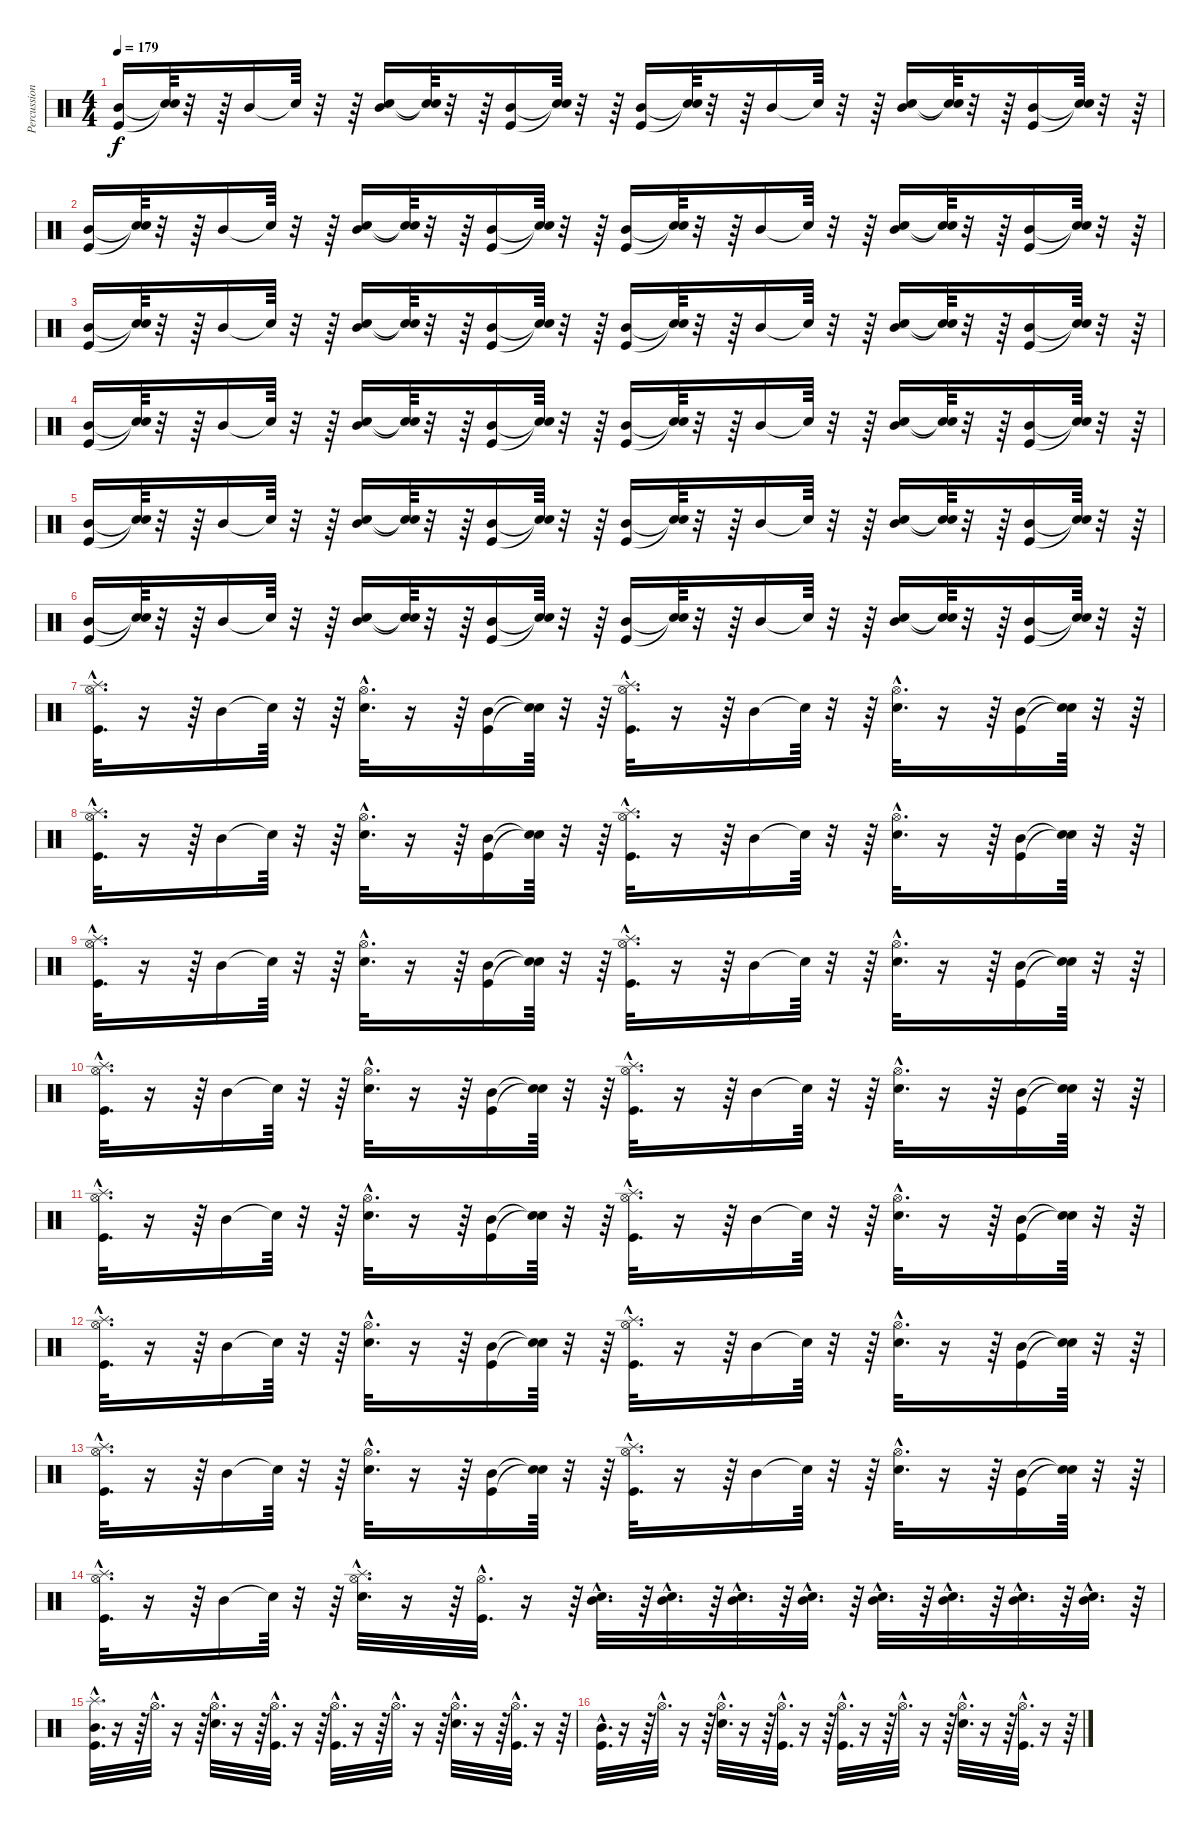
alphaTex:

\track ("Percussion" "Percussion") {instrument percussion}
\staff {score}
\articulation defaults
\ts (4 4)
\tempo 179
\clef neutral
\ks c
("Kick (hit)" "Mid Tom (hit)").16{dy f} ("Snare (hit)"{t} "Snare (hit)"{t}).64 r.32 r.64 "Mid Tom (hit)".16 "Snare (hit)"{t}.64 r.32 r.64 ("Mid Tom (hit)" "Snare (hit) 2").16 ("Snare (hit)"{t} "Snare (hit)"{t}).64 r.32 r.64 ("Kick (hit)" "Mid Tom (hit)").16 ("Snare (hit)"{t} "Snare (hit)"{t}).64 r.32 r.64 ("Kick (hit)" "Mid Tom (hit)").16 ("Snare (hit)"{t} "Snare (hit)"{t}).64 r.32 r.64 "Mid Tom (hit)".16 "Snare (hit)"{t}.64 r.32 r.64 ("Mid Tom (hit)" "Snare (hit) 2").16 ("Snare (hit)"{t} "Snare (hit)"{t}).64 r.32 r.64 ("Kick (hit)" "Mid Tom (hit)").16 ("Snare (hit)"{t} "Snare (hit)"{t}).64 r.32 r.64 |
("Kick (hit)" "Mid Tom (hit)").16 ("Snare (hit)"{t} "Snare (hit)"{t}).64 r.32 r.64 "Mid Tom (hit)".16 "Snare (hit)"{t}.64 r.32 r.64 ("Mid Tom (hit)" "Snare (hit) 2").16 ("Snare (hit)"{t} "Snare (hit)"{t}).64 r.32 r.64 ("Kick (hit)" "Mid Tom (hit)").16 ("Snare (hit)"{t} "Snare (hit)"{t}).64 r.32 r.64 ("Kick (hit)" "Mid Tom (hit)").16 ("Snare (hit)"{t} "Snare (hit)"{t}).64 r.32 r.64 "Mid Tom (hit)".16 "Snare (hit)"{t}.64 r.32 r.64 ("Mid Tom (hit)" "Snare (hit) 2").16 ("Snare (hit)"{t} "Snare (hit)"{t}).64 r.32 r.64 ("Kick (hit)" "Mid Tom (hit)").16 ("Snare (hit)"{t} "Snare (hit)"{t}).64 r.32 r.64 |
("Kick (hit)" "Mid Tom (hit)").16 ("Snare (hit)"{t} "Snare (hit)"{t}).64 r.32 r.64 "Mid Tom (hit)".16 "Snare (hit)"{t}.64 r.32 r.64 ("Mid Tom (hit)" "Snare (hit) 2").16 ("Snare (hit)"{t} "Snare (hit)"{t}).64 r.32 r.64 ("Kick (hit)" "Mid Tom (hit)").16 ("Snare (hit)"{t} "Snare (hit)"{t}).64 r.32 r.64 ("Kick (hit)" "Mid Tom (hit)").16 ("Snare (hit)"{t} "Snare (hit)"{t}).64 r.32 r.64 "Mid Tom (hit)".16 "Snare (hit)"{t}.64 r.32 r.64 ("Mid Tom (hit)" "Snare (hit) 2").16 ("Snare (hit)"{t} "Snare (hit)"{t}).64 r.32 r.64 ("Kick (hit)" "Mid Tom (hit)").16 ("Snare (hit)"{t} "Snare (hit)"{t}).64 r.32 r.64 |
("Kick (hit)" "Mid Tom (hit)").16 ("Snare (hit)"{t} "Snare (hit)"{t}).64 r.32 r.64 "Mid Tom (hit)".16 "Snare (hit)"{t}.64 r.32 r.64 ("Mid Tom (hit)" "Snare (hit) 2").16 ("Snare (hit)"{t} "Snare (hit)"{t}).64 r.32 r.64 ("Kick (hit)" "Mid Tom (hit)").16 ("Snare (hit)"{t} "Snare (hit)"{t}).64 r.32 r.64 ("Kick (hit)" "Mid Tom (hit)").16 ("Snare (hit)"{t} "Snare (hit)"{t}).64 r.32 r.64 "Mid Tom (hit)".16 "Snare (hit)"{t}.64 r.32 r.64 ("Mid Tom (hit)" "Snare (hit) 2").16 ("Snare (hit)"{t} "Snare (hit)"{t}).64 r.32 r.64 ("Kick (hit)" "Mid Tom (hit)").16 ("Snare (hit)"{t} "Snare (hit)"{t}).64 r.32 r.64 |
("Kick (hit)" "Mid Tom (hit)").16 ("Snare (hit)"{t} "Snare (hit)"{t}).64 r.32 r.64 "Mid Tom (hit)".16 "Snare (hit)"{t}.64 r.32 r.64 ("Mid Tom (hit)" "Snare (hit) 2").16 ("Snare (hit)"{t} "Snare (hit)"{t}).64 r.32 r.64 ("Kick (hit)" "Mid Tom (hit)").16 ("Snare (hit)"{t} "Snare (hit)"{t}).64 r.32 r.64 ("Kick (hit)" "Mid Tom (hit)").16 ("Snare (hit)"{t} "Snare (hit)"{t}).64 r.32 r.64 "Mid Tom (hit)".16 "Snare (hit)"{t}.64 r.32 r.64 ("Mid Tom (hit)" "Snare (hit) 2").16 ("Snare (hit)"{t} "Snare (hit)"{t}).64 r.32 r.64 ("Kick (hit)" "Mid Tom (hit)").16 ("Snare (hit)"{t} "Snare (hit)"{t}).64 r.32 r.64 |
("Kick (hit)" "Mid Tom (hit)").16 ("Snare (hit)"{t} "Snare (hit)"{t}).64 r.32 r.64 "Mid Tom (hit)".16 "Snare (hit)"{t}.64 r.32 r.64 ("Mid Tom (hit)" "Snare (hit) 2").16 ("Snare (hit)"{t} "Snare (hit)"{t}).64 r.32 r.64 ("Kick (hit)" "Mid Tom (hit)").16 ("Snare (hit)"{t} "Snare (hit)"{t}).64 r.32 r.64 ("Kick (hit)" "Mid Tom (hit)").16 ("Snare (hit)"{t} "Snare (hit)"{t}).64 r.32 r.64 "Mid Tom (hit)".16 "Snare (hit)"{t}.64 r.32 r.64 ("Mid Tom (hit)" "Snare (hit) 2").16 ("Snare (hit)"{t} "Snare (hit)"{t}).64 r.32 r.64 ("Kick (hit)" "Mid Tom (hit)").16 ("Snare (hit)"{t} "Snare (hit)"{t}).64 r.32 r.64 |
("Splash (hit)"{hac} "Kick (hit)"{hac} "Hi-Hat (open)"{hac}).32{d} r.16 r.64 "Mid Tom (hit)".16 "Snare (hit)"{t}.64 r.32 r.64 ("Snare (hit) 2"{hac} "Hi-Hat (open)"{hac}).32{d} r.16 r.64 ("Kick (hit)" "Mid Tom (hit)").16 ("Snare (hit)"{t} "Snare (hit)"{t}).64 r.32 r.64 ("Splash (hit)"{hac} "Kick (hit)"{hac} "Hi-Hat (open)"{hac}).32{d} r.16 r.64 "Mid Tom (hit)".16 "Snare (hit)"{t}.64 r.32 r.64 ("Snare (hit) 2"{hac} "Hi-Hat (open)"{hac}).32{d} r.16 r.64 ("Kick (hit)" "Mid Tom (hit)").16 ("Snare (hit)"{t} "Snare (hit)"{t}).64 r.32 r.64 |
("Splash (hit)"{hac} "Kick (hit)"{hac} "Hi-Hat (open)"{hac}).32{d} r.16 r.64 "Mid Tom (hit)".16 "Snare (hit)"{t}.64 r.32 r.64 ("Snare (hit) 2"{hac} "Hi-Hat (open)"{hac}).32{d} r.16 r.64 ("Kick (hit)" "Mid Tom (hit)").16 ("Snare (hit)"{t} "Snare (hit)"{t}).64 r.32 r.64 ("Splash (hit)"{hac} "Kick (hit)"{hac} "Hi-Hat (open)"{hac}).32{d} r.16 r.64 "Mid Tom (hit)".16 "Snare (hit)"{t}.64 r.32 r.64 ("Snare (hit) 2"{hac} "Hi-Hat (open)"{hac}).32{d} r.16 r.64 ("Kick (hit)" "Mid Tom (hit)").16 ("Snare (hit)"{t} "Snare (hit)"{t}).64 r.32 r.64 |
("Splash (hit)"{hac} "Kick (hit)"{hac} "Hi-Hat (open)"{hac}).32{d} r.16 r.64 "Mid Tom (hit)".16 "Snare (hit)"{t}.64 r.32 r.64 ("Snare (hit) 2"{hac} "Hi-Hat (open)"{hac}).32{d} r.16 r.64 ("Kick (hit)" "Mid Tom (hit)").16 ("Snare (hit)"{t} "Snare (hit)"{t}).64 r.32 r.64 ("Splash (hit)"{hac} "Kick (hit)"{hac} "Hi-Hat (open)"{hac}).32{d} r.16 r.64 "Mid Tom (hit)".16 "Snare (hit)"{t}.64 r.32 r.64 ("Snare (hit) 2"{hac} "Hi-Hat (open)"{hac}).32{d} r.16 r.64 ("Kick (hit)" "Mid Tom (hit)").16 ("Snare (hit)"{t} "Snare (hit)"{t}).64 r.32 r.64 |
("Splash (hit)"{hac} "Kick (hit)"{hac} "Hi-Hat (open)"{hac}).32{d} r.16 r.64 "Mid Tom (hit)".16 "Snare (hit)"{t}.64 r.32 r.64 ("Snare (hit) 2"{hac} "Hi-Hat (open)"{hac}).32{d} r.16 r.64 ("Kick (hit)" "Mid Tom (hit)").16 ("Snare (hit)"{t} "Snare (hit)"{t}).64 r.32 r.64 ("Splash (hit)"{hac} "Kick (hit)"{hac} "Hi-Hat (open)"{hac}).32{d} r.16 r.64 "Mid Tom (hit)".16 "Snare (hit)"{t}.64 r.32 r.64 ("Snare (hit) 2"{hac} "Hi-Hat (open)"{hac}).32{d} r.16 r.64 ("Kick (hit)" "Mid Tom (hit)").16 ("Snare (hit)"{t} "Snare (hit)"{t}).64 r.32 r.64 |
("Splash (hit)"{hac} "Kick (hit)"{hac} "Hi-Hat (open)"{hac}).32{d} r.16 r.64 "Mid Tom (hit)".16 "Snare (hit)"{t}.64 r.32 r.64 ("Snare (hit) 2"{hac} "Hi-Hat (open)"{hac}).32{d} r.16 r.64 ("Kick (hit)" "Mid Tom (hit)").16 ("Snare (hit)"{t} "Snare (hit)"{t}).64 r.32 r.64 ("Splash (hit)"{hac} "Kick (hit)"{hac} "Hi-Hat (open)"{hac}).32{d} r.16 r.64 "Mid Tom (hit)".16 "Snare (hit)"{t}.64 r.32 r.64 ("Snare (hit) 2"{hac} "Hi-Hat (open)"{hac}).32{d} r.16 r.64 ("Kick (hit)" "Mid Tom (hit)").16 ("Snare (hit)"{t} "Snare (hit)"{t}).64 r.32 r.64 |
("Splash (hit)"{hac} "Kick (hit)"{hac} "Hi-Hat (open)"{hac}).32{d} r.16 r.64 "Mid Tom (hit)".16 "Snare (hit)"{t}.64 r.32 r.64 ("Snare (hit) 2"{hac} "Hi-Hat (open)"{hac}).32{d} r.16 r.64 ("Kick (hit)" "Mid Tom (hit)").16 ("Snare (hit)"{t} "Snare (hit)"{t}).64 r.32 r.64 ("Splash (hit)"{hac} "Kick (hit)"{hac} "Hi-Hat (open)"{hac}).32{d} r.16 r.64 "Mid Tom (hit)".16 "Snare (hit)"{t}.64 r.32 r.64 ("Snare (hit) 2"{hac} "Hi-Hat (open)"{hac}).32{d} r.16 r.64 ("Kick (hit)" "Mid Tom (hit)").16 ("Snare (hit)"{t} "Snare (hit)"{t}).64 r.32 r.64 |
("Splash (hit)"{hac} "Kick (hit)"{hac} "Hi-Hat (open)"{hac}).32{d} r.16 r.64 "Mid Tom (hit)".16 "Snare (hit)"{t}.64 r.32 r.64 ("Snare (hit) 2"{hac} "Hi-Hat (open)"{hac}).32{d} r.16 r.64 ("Kick (hit)" "Mid Tom (hit)").16 ("Snare (hit)"{t} "Snare (hit)"{t}).64 r.32 r.64 ("Splash (hit)"{hac} "Kick (hit)"{hac} "Hi-Hat (open)"{hac}).32{d} r.16 r.64 "Mid Tom (hit)".16 "Snare (hit)"{t}.64 r.32 r.64 ("Snare (hit) 2"{hac} "Hi-Hat (open)"{hac}).32{d} r.16 r.64 ("Kick (hit)" "Mid Tom (hit)").16 ("Snare (hit)"{t} "Snare (hit)"{t}).64 r.32 r.64 |
("Splash (hit)"{hac} "Kick (hit)"{hac} "Hi-Hat (open)"{hac}).32{d} r.16 r.64 "Mid Tom (hit)".16 "Snare (hit)"{t}.64 r.32 r.64 ("Splash (hit)"{hac} "Snare (hit) 2"{hac} "Hi-Hat (open)"{hac}).32{d} r.16 r.64 ("Hi-Hat (open)"{hac} "Kick (hit)"{hac}).32{d} r.16 r.64 ("Snare (hit) 2"{hac} "Mid Tom (hit)"{hac}).32{d} r.64 ("Snare (hit) 2"{hac} "Mid Tom (hit)"{hac}).32{d} r.64 ("Snare (hit) 2"{hac} "Mid Tom (hit)"{hac}).32{d} r.64 ("Snare (hit) 2"{hac} "Mid Tom (hit)"{hac}).32{d} r.64 ("Snare (hit) 2"{hac} "Mid Tom (hit)"{hac}).32{d} r.64 ("Snare (hit) 2"{hac} "Mid Tom (hit)"{hac}).32{d} r.64 ("Snare (hit) 2"{hac} "Mid Tom (hit)"{hac}).32{d} r.64 ("Snare (hit) 2"{hac} "Mid Tom (hit)"{hac}).32{d} r.64 |
("Splash (hit)"{hac} "Mid Tom (hit)"{hac} "Kick (hit)"{hac}).32{d} r.16 r.64 "Hi-Hat (open)"{hac}.32{d} r.16 r.64 ("Hi-Hat (open)"{hac} "Snare (hit) 2"{hac}).32{d} r.16 r.64 ("Hi-Hat (open)"{hac} "Kick (hit)"{hac}).32{d} r.16 r.64 ("Hi-Hat (open)"{hac} "Kick (hit)"{hac}).32{d} r.16 r.64 "Hi-Hat (open)"{hac}.32{d} r.16 r.64 ("Hi-Hat (open)"{hac} "Snare (hit) 2"{hac}).32{d} r.16 r.64 ("Hi-Hat (open)"{hac} "Kick (hit)"{hac}).32{d} r.16 r.64 |
("Mid Tom (hit)"{hac} "Kick (hit)"{hac}).32{d} r.16 r.64 "Hi-Hat (open)"{hac}.32{d} r.16 r.64 ("Hi-Hat (open)"{hac} "Snare (hit) 2"{hac}).32{d} r.16 r.64 ("Hi-Hat (open)"{hac} "Kick (hit)"{hac}).32{d} r.16 r.64 ("Hi-Hat (open)"{hac} "Kick (hit)"{hac}).32{d} r.16 r.64 "Hi-Hat (open)"{hac}.32{d} r.16 r.64 ("Hi-Hat (open)"{hac} "Snare (hit) 2"{hac}).32{d} r.16 r.64 ("Hi-Hat (open)"{hac} "Kick (hit)"{hac}).32{d} r.16 r.64
